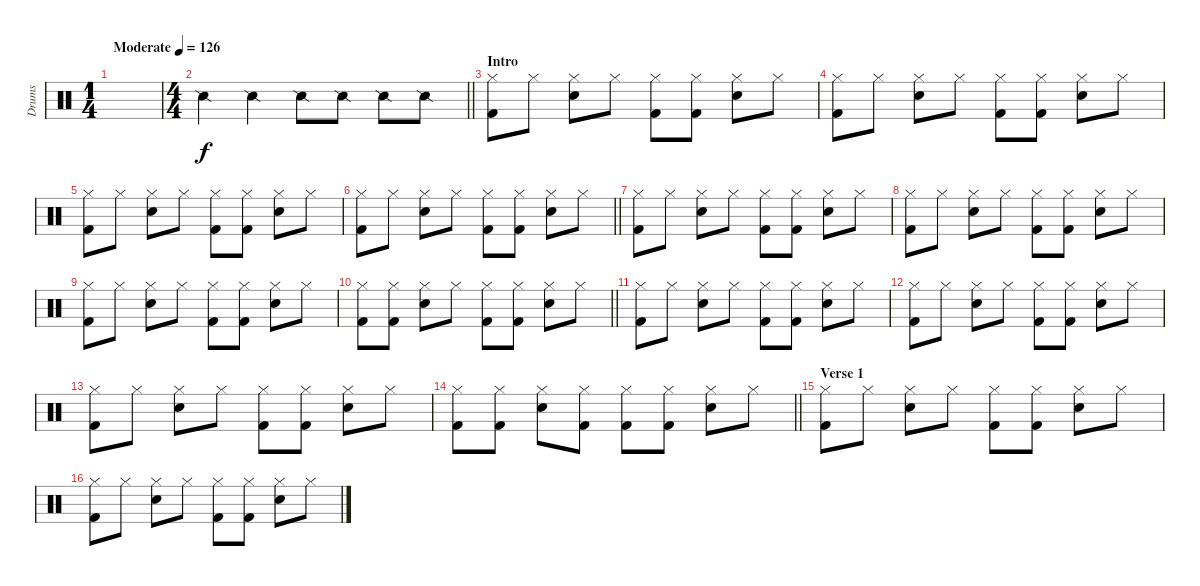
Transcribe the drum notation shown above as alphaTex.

\track ("Drums" "Drums") {instrument percussion}
\staff {score}
\articulation defaults
\ts (1 4)
\tempo (126 "Moderate")
\clef neutral
\ks c
|
\ts (4 4)
\barLineRight lightlight "Snare (side stick) 2".4 "Snare (side stick) 2".4 "Snare (side stick) 2".8 "Snare (side stick) 2".8 "Snare (side stick) 2".8 "Snare (side stick) 2".8
|
\section ("" "Intro")
("Hi-Hat (closed)" "Kick (hit) 2").8 "Hi-Hat (closed)".8 ("Hi-Hat (closed)" "Snare (hit) 2").8 "Hi-Hat (closed)".8 ("Hi-Hat (closed)" "Kick (hit) 2").8 ("Hi-Hat (closed)" "Kick (hit) 2").8 ("Hi-Hat (closed)" "Snare (hit) 2").8 "Hi-Hat (closed)".8 |
("Hi-Hat (closed)" "Kick (hit) 2").8 "Hi-Hat (closed)".8 ("Hi-Hat (closed)" "Snare (hit) 2").8 "Hi-Hat (closed)".8 ("Hi-Hat (closed)" "Kick (hit) 2").8 ("Hi-Hat (closed)" "Kick (hit) 2").8 ("Hi-Hat (closed)" "Snare (hit) 2").8 "Hi-Hat (closed)".8 |
("Hi-Hat (closed)" "Kick (hit) 2").8 "Hi-Hat (closed)".8 ("Hi-Hat (closed)" "Snare (hit) 2").8 "Hi-Hat (closed)".8 ("Hi-Hat (closed)" "Kick (hit) 2").8 ("Hi-Hat (closed)" "Kick (hit) 2").8 ("Hi-Hat (closed)" "Snare (hit) 2").8 "Hi-Hat (closed)".8 |
\barLineRight lightlight
("Hi-Hat (closed)" "Kick (hit) 2").8 "Hi-Hat (closed)".8 ("Hi-Hat (closed)" "Snare (hit) 2").8 "Hi-Hat (closed)".8 ("Hi-Hat (closed)" "Kick (hit) 2").8 ("Hi-Hat (closed)" "Kick (hit) 2").8 ("Hi-Hat (closed)" "Snare (hit) 2").8 "Hi-Hat (closed)".8 |
("Hi-Hat (closed)" "Kick (hit) 2").8 "Hi-Hat (closed)".8 ("Hi-Hat (closed)" "Snare (hit) 2").8 "Hi-Hat (closed)".8 ("Hi-Hat (closed)" "Kick (hit) 2").8 ("Hi-Hat (closed)" "Kick (hit) 2").8 ("Hi-Hat (closed)" "Snare (hit) 2").8 "Hi-Hat (closed)".8 |
("Hi-Hat (closed)" "Kick (hit) 2").8 "Hi-Hat (closed)".8 ("Hi-Hat (closed)" "Snare (hit) 2").8 "Hi-Hat (closed)".8 ("Hi-Hat (closed)" "Kick (hit) 2").8 ("Hi-Hat (closed)" "Kick (hit) 2").8 ("Hi-Hat (closed)" "Snare (hit) 2").8 "Hi-Hat (closed)".8 |
("Hi-Hat (closed)" "Kick (hit) 2").8 "Hi-Hat (closed)".8 ("Hi-Hat (closed)" "Snare (hit) 2").8 "Hi-Hat (closed)".8 ("Hi-Hat (closed)" "Kick (hit) 2").8 ("Hi-Hat (closed)" "Kick (hit) 2").8 ("Hi-Hat (closed)" "Snare (hit) 2").8 "Hi-Hat (closed)".8 |
\barLineRight lightlight
("Hi-Hat (closed)" "Kick (hit) 2").8 ("Hi-Hat (closed)" "Kick (hit) 2").8 ("Hi-Hat (closed)" "Snare (hit) 2").8 "Hi-Hat (closed)".8 ("Hi-Hat (closed)" "Kick (hit) 2").8 ("Hi-Hat (closed)" "Kick (hit) 2").8 ("Hi-Hat (closed)" "Snare (hit) 2").8 "Hi-Hat (closed)".8 |
("Hi-Hat (closed)" "Kick (hit) 2").8 "Hi-Hat (closed)".8 ("Hi-Hat (closed)" "Snare (hit) 2").8 "Hi-Hat (closed)".8 ("Hi-Hat (closed)" "Kick (hit) 2").8 ("Hi-Hat (closed)" "Kick (hit) 2").8 ("Hi-Hat (closed)" "Snare (hit) 2").8 "Hi-Hat (closed)".8 |
("Hi-Hat (closed)" "Kick (hit) 2").8 "Hi-Hat (closed)".8 ("Hi-Hat (closed)" "Snare (hit) 2").8 "Hi-Hat (closed)".8 ("Hi-Hat (closed)" "Kick (hit) 2").8 ("Hi-Hat (closed)" "Kick (hit) 2").8 ("Hi-Hat (closed)" "Snare (hit) 2").8 "Hi-Hat (closed)".8 |
("Hi-Hat (closed)" "Kick (hit) 2").8 "Hi-Hat (closed)".8 ("Hi-Hat (closed)" "Snare (hit) 2").8 "Hi-Hat (closed)".8 ("Hi-Hat (closed)" "Kick (hit) 2").8 ("Hi-Hat (closed)" "Kick (hit) 2").8 ("Hi-Hat (closed)" "Snare (hit) 2").8 "Hi-Hat (closed)".8 |
\barLineRight lightlight
("Hi-Hat (closed)" "Kick (hit) 2").8 ("Hi-Hat (closed)" "Kick (hit) 2").8 ("Hi-Hat (closed)" "Snare (hit) 2").8 ("Hi-Hat (closed)" "Kick (hit) 2").8 ("Hi-Hat (closed)" "Kick (hit) 2").8 ("Hi-Hat (closed)" "Kick (hit) 2").8 ("Hi-Hat (closed)" "Snare (hit) 2").8 "Hi-Hat (closed)".8 |
\section ("" "Verse 1")
("Hi-Hat (closed)" "Kick (hit) 2").8 "Hi-Hat (closed)".8 ("Hi-Hat (closed)" "Snare (hit) 2").8 "Hi-Hat (closed)".8 ("Hi-Hat (closed)" "Kick (hit) 2").8 ("Hi-Hat (closed)" "Kick (hit) 2").8 ("Hi-Hat (closed)" "Snare (hit) 2").8 "Hi-Hat (closed)".8 |
("Hi-Hat (closed)" "Kick (hit) 2").8 "Hi-Hat (closed)".8 ("Hi-Hat (closed)" "Snare (hit) 2").8 "Hi-Hat (closed)".8 ("Hi-Hat (closed)" "Kick (hit) 2").8 ("Hi-Hat (closed)" "Kick (hit) 2").8 ("Hi-Hat (closed)" "Snare (hit) 2").8 "Hi-Hat (closed)".8
